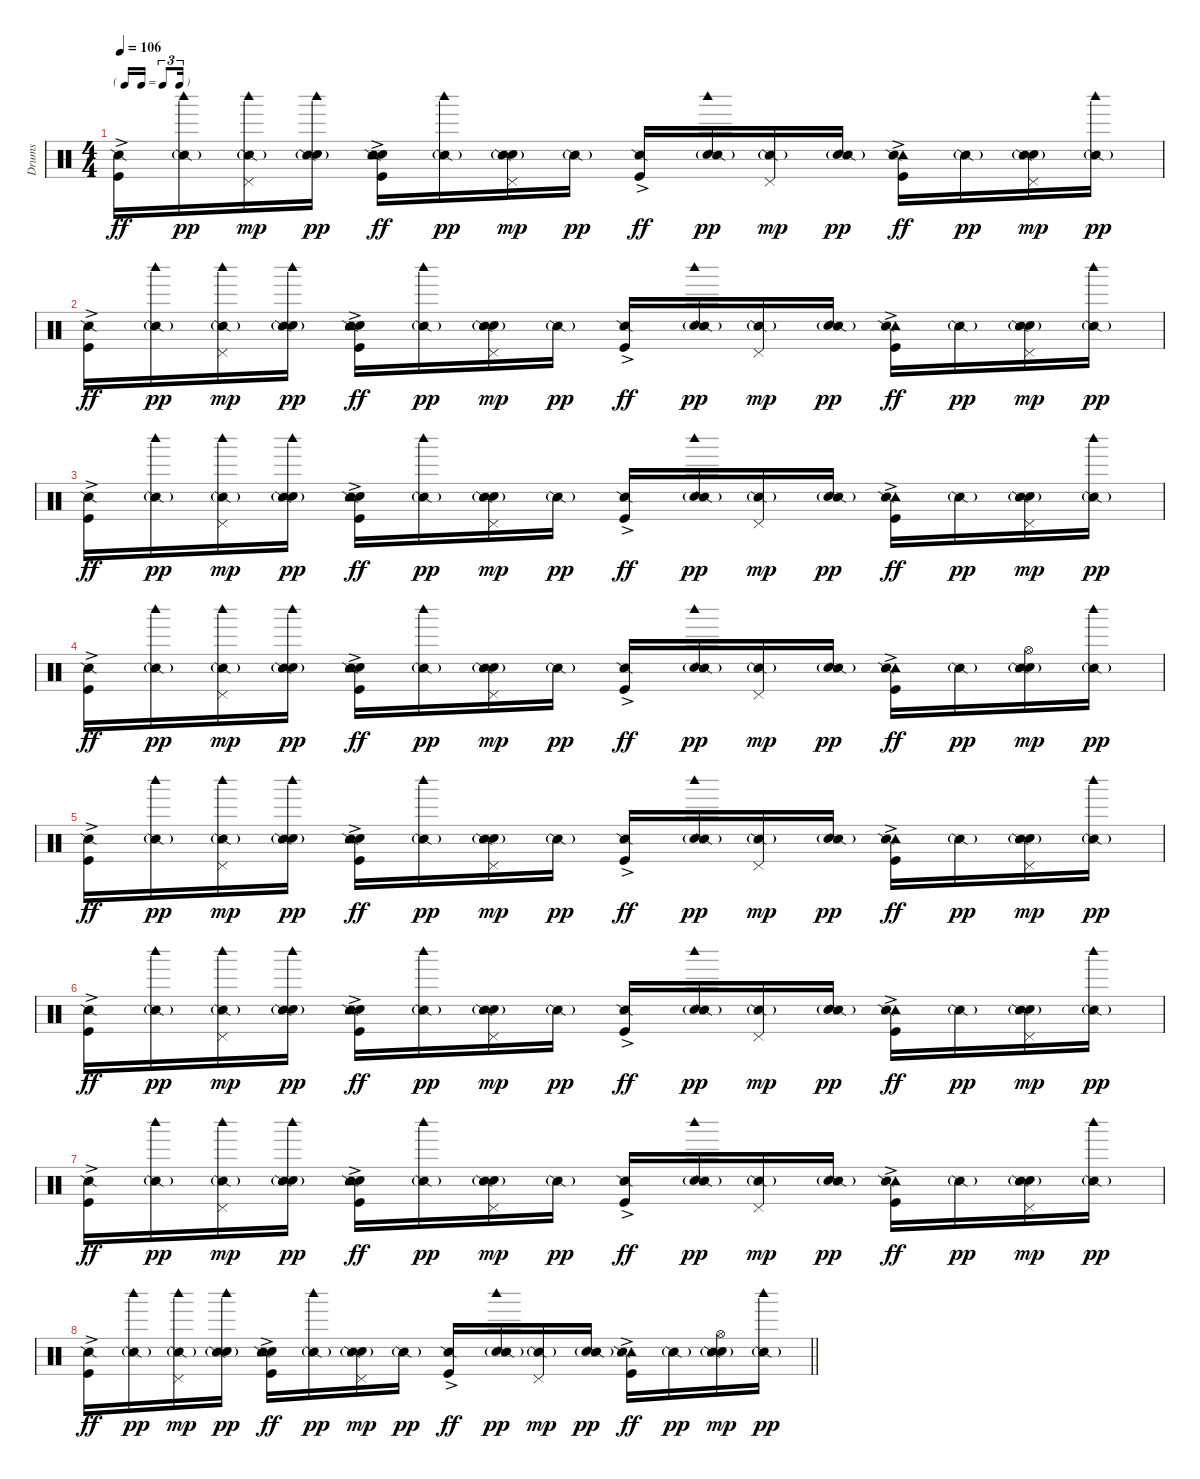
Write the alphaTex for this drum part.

\track ("Drums" "Drums") {instrument percussion}
\staff {score}
\articulation defaults
\ts (4 4)
\tf triplet16th
\tempo 106
\clef neutral
\ks c
("Kick (hit)"{ac} "Snare (side stick) 2").16{dy ff} ("Woodblock high (hit)" "Snare (side stick) 2"{g}).16{dy pp} ("Pedal Hi-Hat (hit)" "Woodblock high (hit)" "Snare (side stick) 2"{g}).16{dy mp} ("Hand Clap (hit)" "Woodblock high (hit)" "Snare (side stick) 2"{g}).16{dy pp} ("Kick (hit)"{ac} "Hand Clap (hit)" "Tambourine (hit)" "Snare (side stick) 2").16{dy ff} ("Woodblock high (hit)" "Snare (side stick) 2"{g}).16{dy pp} ("Hand Clap (hit)" "Pedal Hi-Hat (hit)" "Snare (side stick) 2"{g}).16{dy mp} "Snare (side stick) 2"{g}.16{dy pp} ("Kick (hit)"{ac} "Snare (side stick) 2").16{dy ff} ("Hand Clap (hit)" "Woodblock high (hit)" "Snare (side stick) 2"{g}).16{dy pp} ("Pedal Hi-Hat (hit)" "Snare (side stick) 2"{g}).16{dy mp} ("Hand Clap (hit)" "Snare (side stick) 2"{g}).16{dy pp} ("Kick (hit)"{ac} "Tambourine (hit)" "Snare (side stick) 2").16{dy ff} "Snare (side stick) 2"{g}.16{dy pp} ("Hand Clap (hit)" "Pedal Hi-Hat (hit)" "Snare (side stick) 2"{g}).16{dy mp} ("Woodblock high (hit)" "Snare (side stick) 2"{g}).16{dy pp} |
("Kick (hit)"{ac} "Snare (side stick) 2").16{dy ff} ("Woodblock high (hit)" "Snare (side stick) 2"{g}).16{dy pp} ("Pedal Hi-Hat (hit)" "Woodblock high (hit)" "Snare (side stick) 2"{g}).16{dy mp} ("Hand Clap (hit)" "Woodblock high (hit)" "Snare (side stick) 2"{g}).16{dy pp} ("Kick (hit)"{ac} "Hand Clap (hit)" "Tambourine (hit)" "Snare (side stick) 2").16{dy ff} ("Woodblock high (hit)" "Snare (side stick) 2"{g}).16{dy pp} ("Hand Clap (hit)" "Pedal Hi-Hat (hit)" "Snare (side stick) 2"{g}).16{dy mp} "Snare (side stick) 2"{g}.16{dy pp} ("Kick (hit)"{ac} "Snare (side stick) 2").16{dy ff} ("Hand Clap (hit)" "Woodblock high (hit)" "Snare (side stick) 2"{g}).16{dy pp} ("Pedal Hi-Hat (hit)" "Snare (side stick) 2"{g}).16{dy mp} ("Hand Clap (hit)" "Snare (side stick) 2"{g}).16{dy pp} ("Kick (hit)"{ac} "Tambourine (hit)" "Snare (side stick) 2").16{dy ff} "Snare (side stick) 2"{g}.16{dy pp} ("Hand Clap (hit)" "Pedal Hi-Hat (hit)" "Snare (side stick) 2"{g}).16{dy mp} ("Woodblock high (hit)" "Snare (side stick) 2"{g}).16{dy pp} |
("Kick (hit)"{ac} "Snare (side stick) 2").16{dy ff} ("Woodblock high (hit)" "Snare (side stick) 2"{g}).16{dy pp} ("Pedal Hi-Hat (hit)" "Woodblock high (hit)" "Snare (side stick) 2"{g}).16{dy mp} ("Hand Clap (hit)" "Woodblock high (hit)" "Snare (side stick) 2"{g}).16{dy pp} ("Kick (hit)"{ac} "Hand Clap (hit)" "Tambourine (hit)" "Snare (side stick) 2").16{dy ff} ("Woodblock high (hit)" "Snare (side stick) 2"{g}).16{dy pp} ("Hand Clap (hit)" "Pedal Hi-Hat (hit)" "Snare (side stick) 2"{g}).16{dy mp} "Snare (side stick) 2"{g}.16{dy pp} ("Kick (hit)"{ac} "Snare (side stick) 2").16{dy ff} ("Hand Clap (hit)" "Woodblock high (hit)" "Snare (side stick) 2"{g}).16{dy pp} ("Pedal Hi-Hat (hit)" "Snare (side stick) 2"{g}).16{dy mp} ("Hand Clap (hit)" "Snare (side stick) 2"{g}).16{dy pp} ("Kick (hit)"{ac} "Tambourine (hit)" "Snare (side stick) 2").16{dy ff} "Snare (side stick) 2"{g}.16{dy pp} ("Hand Clap (hit)" "Pedal Hi-Hat (hit)" "Snare (side stick) 2"{g}).16{dy mp} ("Woodblock high (hit)" "Snare (side stick) 2"{g}).16{dy pp} |
("Kick (hit)"{ac} "Snare (side stick) 2").16{dy ff} ("Woodblock high (hit)" "Snare (side stick) 2"{g}).16{dy pp} ("Pedal Hi-Hat (hit)" "Woodblock high (hit)" "Snare (side stick) 2"{g}).16{dy mp} ("Hand Clap (hit)" "Woodblock high (hit)" "Snare (side stick) 2"{g}).16{dy pp} ("Kick (hit)"{ac} "Hand Clap (hit)" "Tambourine (hit)" "Snare (side stick) 2").16{dy ff} ("Woodblock high (hit)" "Snare (side stick) 2"{g}).16{dy pp} ("Hand Clap (hit)" "Pedal Hi-Hat (hit)" "Snare (side stick) 2"{g}).16{dy mp} "Snare (side stick) 2"{g}.16{dy pp} ("Kick (hit)"{ac} "Snare (side stick) 2").16{dy ff} ("Hand Clap (hit)" "Woodblock high (hit)" "Snare (side stick) 2"{g}).16{dy pp} ("Pedal Hi-Hat (hit)" "Snare (side stick) 2"{g}).16{dy mp} ("Hand Clap (hit)" "Snare (side stick) 2"{g}).16{dy pp} ("Kick (hit)"{ac} "Tambourine (hit)" "Snare (side stick) 2").16{dy ff} "Snare (side stick) 2"{g}.16{dy pp} ("Hand Clap (hit)" "Hi-Hat (open)" "Snare (side stick) 2"{g}).16{dy mp} ("Woodblock high (hit)" "Snare (side stick) 2"{g}).16{dy pp} |
("Kick (hit)"{ac} "Snare (side stick) 2").16{dy ff} ("Woodblock high (hit)" "Snare (side stick) 2"{g}).16{dy pp} ("Pedal Hi-Hat (hit)" "Woodblock high (hit)" "Snare (side stick) 2"{g}).16{dy mp} ("Hand Clap (hit)" "Woodblock high (hit)" "Snare (side stick) 2"{g}).16{dy pp} ("Kick (hit)"{ac} "Hand Clap (hit)" "Tambourine (hit)" "Snare (side stick) 2").16{dy ff} ("Woodblock high (hit)" "Snare (side stick) 2"{g}).16{dy pp} ("Hand Clap (hit)" "Pedal Hi-Hat (hit)" "Snare (side stick) 2"{g}).16{dy mp} "Snare (side stick) 2"{g}.16{dy pp} ("Kick (hit)"{ac} "Snare (side stick) 2").16{dy ff} ("Hand Clap (hit)" "Woodblock high (hit)" "Snare (side stick) 2"{g}).16{dy pp} ("Pedal Hi-Hat (hit)" "Snare (side stick) 2"{g}).16{dy mp} ("Hand Clap (hit)" "Snare (side stick) 2"{g}).16{dy pp} ("Kick (hit)"{ac} "Tambourine (hit)" "Snare (side stick) 2").16{dy ff} "Snare (side stick) 2"{g}.16{dy pp} ("Hand Clap (hit)" "Pedal Hi-Hat (hit)" "Snare (side stick) 2"{g}).16{dy mp} ("Woodblock high (hit)" "Snare (side stick) 2"{g}).16{dy pp} |
("Kick (hit)"{ac} "Snare (side stick) 2").16{dy ff} ("Woodblock high (hit)" "Snare (side stick) 2"{g}).16{dy pp} ("Pedal Hi-Hat (hit)" "Woodblock high (hit)" "Snare (side stick) 2"{g}).16{dy mp} ("Hand Clap (hit)" "Woodblock high (hit)" "Snare (side stick) 2"{g}).16{dy pp} ("Kick (hit)"{ac} "Hand Clap (hit)" "Tambourine (hit)" "Snare (side stick) 2").16{dy ff} ("Woodblock high (hit)" "Snare (side stick) 2"{g}).16{dy pp} ("Hand Clap (hit)" "Pedal Hi-Hat (hit)" "Snare (side stick) 2"{g}).16{dy mp} "Snare (side stick) 2"{g}.16{dy pp} ("Kick (hit)"{ac} "Snare (side stick) 2").16{dy ff} ("Hand Clap (hit)" "Woodblock high (hit)" "Snare (side stick) 2"{g}).16{dy pp} ("Pedal Hi-Hat (hit)" "Snare (side stick) 2"{g}).16{dy mp} ("Hand Clap (hit)" "Snare (side stick) 2"{g}).16{dy pp} ("Kick (hit)"{ac} "Tambourine (hit)" "Snare (side stick) 2").16{dy ff} "Snare (side stick) 2"{g}.16{dy pp} ("Hand Clap (hit)" "Pedal Hi-Hat (hit)" "Snare (side stick) 2"{g}).16{dy mp} ("Woodblock high (hit)" "Snare (side stick) 2"{g}).16{dy pp} |
("Kick (hit)"{ac} "Snare (side stick) 2").16{dy ff} ("Woodblock high (hit)" "Snare (side stick) 2"{g}).16{dy pp} ("Pedal Hi-Hat (hit)" "Woodblock high (hit)" "Snare (side stick) 2"{g}).16{dy mp} ("Hand Clap (hit)" "Woodblock high (hit)" "Snare (side stick) 2"{g}).16{dy pp} ("Kick (hit)"{ac} "Hand Clap (hit)" "Tambourine (hit)" "Snare (side stick) 2").16{dy ff} ("Woodblock high (hit)" "Snare (side stick) 2"{g}).16{dy pp} ("Hand Clap (hit)" "Pedal Hi-Hat (hit)" "Snare (side stick) 2"{g}).16{dy mp} "Snare (side stick) 2"{g}.16{dy pp} ("Kick (hit)"{ac} "Snare (side stick) 2").16{dy ff} ("Hand Clap (hit)" "Woodblock high (hit)" "Snare (side stick) 2"{g}).16{dy pp} ("Pedal Hi-Hat (hit)" "Snare (side stick) 2"{g}).16{dy mp} ("Hand Clap (hit)" "Snare (side stick) 2"{g}).16{dy pp} ("Kick (hit)"{ac} "Tambourine (hit)" "Snare (side stick) 2").16{dy ff} "Snare (side stick) 2"{g}.16{dy pp} ("Hand Clap (hit)" "Pedal Hi-Hat (hit)" "Snare (side stick) 2"{g}).16{dy mp} ("Woodblock high (hit)" "Snare (side stick) 2"{g}).16{dy pp} |
\barLineRight lightlight
("Kick (hit)"{ac} "Snare (side stick) 2").16{dy ff} ("Woodblock high (hit)" "Snare (side stick) 2"{g}).16{dy pp} ("Pedal Hi-Hat (hit)" "Woodblock high (hit)" "Snare (side stick) 2"{g}).16{dy mp} ("Hand Clap (hit)" "Woodblock high (hit)" "Snare (side stick) 2"{g}).16{dy pp} ("Kick (hit)"{ac} "Hand Clap (hit)" "Tambourine (hit)" "Snare (side stick) 2").16{dy ff} ("Woodblock high (hit)" "Snare (side stick) 2"{g}).16{dy pp} ("Hand Clap (hit)" "Pedal Hi-Hat (hit)" "Snare (side stick) 2"{g}).16{dy mp} "Snare (side stick) 2"{g}.16{dy pp} ("Kick (hit)"{ac} "Snare (side stick) 2").16{dy ff} ("Hand Clap (hit)" "Woodblock high (hit)" "Snare (side stick) 2"{g}).16{dy pp} ("Pedal Hi-Hat (hit)" "Snare (side stick) 2"{g}).16{dy mp} ("Hand Clap (hit)" "Snare (side stick) 2"{g}).16{dy pp} ("Kick (hit)"{ac} "Tambourine (hit)" "Snare (side stick) 2").16{dy ff} "Snare (side stick) 2"{g}.16{dy pp} ("Hand Clap (hit)" "Hi-Hat (open)" "Snare (side stick) 2"{g}).16{dy mp} ("Woodblock high (hit)" "Snare (side stick) 2"{g}).16{dy pp}
